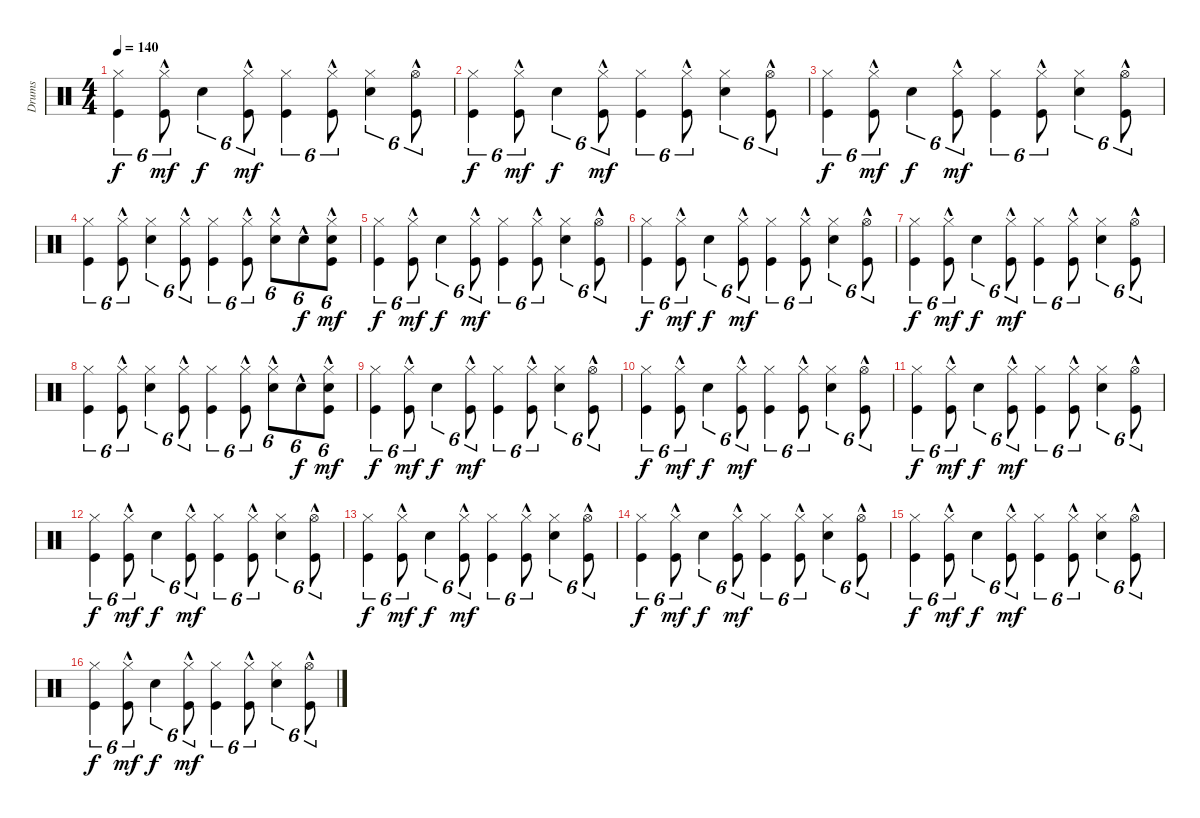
\track ("Drums" "Drums") {instrument percussion}
\staff {score}
\articulation defaults
\ts (4 4)
\tempo 140
\clef neutral
\ks c
("Kick (hit)" "Hi-Hat (closed)").4{tu (6 4) dy f} ("Kick (hit)"{hac} "Hi-Hat (closed)"{hac}).8{tu (6 4) dy mf} "Electric Snare (hit)".4{tu (6 4) dy f} ("Kick (hit)"{hac} "Hi-Hat (closed)"{hac}).8{tu (6 4) dy mf} ("Kick (hit)" "Hi-Hat (closed)").4{tu (6 4)} ("Kick (hit)"{hac} "Hi-Hat (closed)"{hac}).8{tu (6 4)} ("Electric Snare (hit)" "Hi-Hat (closed)").4{tu (6 4)} ("Kick (hit)"{hac} "Hi-Hat (open)"{hac}).8{tu (6 4)} |
("Kick (hit)" "Hi-Hat (closed)").4{tu (6 4) dy f} ("Kick (hit)"{hac} "Hi-Hat (closed)"{hac}).8{tu (6 4) dy mf} "Electric Snare (hit)".4{tu (6 4) dy f} ("Kick (hit)"{hac} "Hi-Hat (closed)"{hac}).8{tu (6 4) dy mf} ("Kick (hit)" "Hi-Hat (closed)").4{tu (6 4)} ("Kick (hit)"{hac} "Hi-Hat (closed)"{hac}).8{tu (6 4)} ("Electric Snare (hit)" "Hi-Hat (closed)").4{tu (6 4)} ("Kick (hit)"{hac} "Hi-Hat (open)"{hac}).8{tu (6 4)} |
("Kick (hit)" "Hi-Hat (closed)").4{tu (6 4) dy f} ("Kick (hit)"{hac} "Hi-Hat (closed)"{hac}).8{tu (6 4) dy mf} "Electric Snare (hit)".4{tu (6 4) dy f} ("Kick (hit)"{hac} "Hi-Hat (closed)"{hac}).8{tu (6 4) dy mf} ("Kick (hit)" "Hi-Hat (closed)").4{tu (6 4)} ("Kick (hit)"{hac} "Hi-Hat (closed)"{hac}).8{tu (6 4)} ("Electric Snare (hit)" "Hi-Hat (closed)").4{tu (6 4)} ("Kick (hit)"{hac} "Hi-Hat (open)"{hac}).8{tu (6 4)} |
("Kick (hit)" "Hi-Hat (closed)").4{tu (6 4)} ("Kick (hit)"{hac} "Hi-Hat (closed)"{hac}).8{tu (6 4)} ("Electric Snare (hit)" "Hi-Hat (closed)").4{tu (6 4)} ("Kick (hit)"{hac} "Hi-Hat (closed)"{hac}).8{tu (6 4)} ("Kick (hit)" "Hi-Hat (closed)").4{tu (6 4)} ("Kick (hit)"{hac} "Hi-Hat (closed)"{hac}).8{tu (6 4)} ("Electric Snare (hit)"{hac} "Hi-Hat (closed)"{hac}).8{tu (6 4)} "Electric Snare (hit)"{hac}.8{tu (6 4) dy f} ("Kick (hit)"{hac} "Snare (hit) 2"{hac} "Hi-Hat (closed)"{hac}).8{tu (6 4) dy mf} |
("Kick (hit)" "Hi-Hat (closed)").4{tu (6 4) dy f} ("Kick (hit)"{hac} "Hi-Hat (closed)"{hac}).8{tu (6 4) dy mf} "Electric Snare (hit)".4{tu (6 4) dy f} ("Kick (hit)"{hac} "Hi-Hat (closed)"{hac}).8{tu (6 4) dy mf} ("Kick (hit)" "Hi-Hat (closed)").4{tu (6 4)} ("Kick (hit)"{hac} "Hi-Hat (closed)"{hac}).8{tu (6 4)} ("Electric Snare (hit)" "Hi-Hat (closed)").4{tu (6 4)} ("Kick (hit)"{hac} "Hi-Hat (open)"{hac}).8{tu (6 4)} |
("Kick (hit)" "Hi-Hat (closed)").4{tu (6 4) dy f} ("Kick (hit)"{hac} "Hi-Hat (closed)"{hac}).8{tu (6 4) dy mf} "Electric Snare (hit)".4{tu (6 4) dy f} ("Kick (hit)"{hac} "Hi-Hat (closed)"{hac}).8{tu (6 4) dy mf} ("Kick (hit)" "Hi-Hat (closed)").4{tu (6 4)} ("Kick (hit)"{hac} "Hi-Hat (closed)"{hac}).8{tu (6 4)} ("Electric Snare (hit)" "Hi-Hat (closed)").4{tu (6 4)} ("Kick (hit)"{hac} "Hi-Hat (open)"{hac}).8{tu (6 4)} |
("Kick (hit)" "Hi-Hat (closed)").4{tu (6 4) dy f} ("Kick (hit)"{hac} "Hi-Hat (closed)"{hac}).8{tu (6 4) dy mf} "Electric Snare (hit)".4{tu (6 4) dy f} ("Kick (hit)"{hac} "Hi-Hat (closed)"{hac}).8{tu (6 4) dy mf} ("Kick (hit)" "Hi-Hat (closed)").4{tu (6 4)} ("Kick (hit)"{hac} "Hi-Hat (closed)"{hac}).8{tu (6 4)} ("Electric Snare (hit)" "Hi-Hat (closed)").4{tu (6 4)} ("Kick (hit)"{hac} "Hi-Hat (open)"{hac}).8{tu (6 4)} |
("Kick (hit)" "Hi-Hat (closed)").4{tu (6 4)} ("Kick (hit)"{hac} "Hi-Hat (closed)"{hac}).8{tu (6 4)} ("Electric Snare (hit)" "Hi-Hat (closed)").4{tu (6 4)} ("Kick (hit)"{hac} "Hi-Hat (closed)"{hac}).8{tu (6 4)} ("Kick (hit)" "Hi-Hat (closed)").4{tu (6 4)} ("Kick (hit)"{hac} "Hi-Hat (closed)"{hac}).8{tu (6 4)} ("Electric Snare (hit)"{hac} "Hi-Hat (closed)"{hac}).8{tu (6 4)} "Electric Snare (hit)"{hac}.8{tu (6 4) dy f} ("Kick (hit)"{hac} "Snare (hit) 2"{hac} "Hi-Hat (closed)"{hac}).8{tu (6 4) dy mf} |
("Kick (hit)" "Hi-Hat (closed)").4{tu (6 4) dy f} ("Kick (hit)"{hac} "Hi-Hat (closed)"{hac}).8{tu (6 4) dy mf} "Electric Snare (hit)".4{tu (6 4) dy f} ("Kick (hit)"{hac} "Hi-Hat (closed)"{hac}).8{tu (6 4) dy mf} ("Kick (hit)" "Hi-Hat (closed)").4{tu (6 4)} ("Kick (hit)"{hac} "Hi-Hat (closed)"{hac}).8{tu (6 4)} ("Electric Snare (hit)" "Hi-Hat (closed)").4{tu (6 4)} ("Kick (hit)"{hac} "Hi-Hat (open)"{hac}).8{tu (6 4)} |
("Kick (hit)" "Hi-Hat (closed)").4{tu (6 4) dy f} ("Kick (hit)"{hac} "Hi-Hat (closed)"{hac}).8{tu (6 4) dy mf} "Electric Snare (hit)".4{tu (6 4) dy f} ("Kick (hit)"{hac} "Hi-Hat (closed)"{hac}).8{tu (6 4) dy mf} ("Kick (hit)" "Hi-Hat (closed)").4{tu (6 4)} ("Kick (hit)"{hac} "Hi-Hat (closed)"{hac}).8{tu (6 4)} ("Electric Snare (hit)" "Hi-Hat (closed)").4{tu (6 4)} ("Kick (hit)"{hac} "Hi-Hat (open)"{hac}).8{tu (6 4)} |
("Kick (hit)" "Hi-Hat (closed)").4{tu (6 4) dy f} ("Kick (hit)"{hac} "Hi-Hat (closed)"{hac}).8{tu (6 4) dy mf} "Electric Snare (hit)".4{tu (6 4) dy f} ("Kick (hit)"{hac} "Hi-Hat (closed)"{hac}).8{tu (6 4) dy mf} ("Kick (hit)" "Hi-Hat (closed)").4{tu (6 4)} ("Kick (hit)"{hac} "Hi-Hat (closed)"{hac}).8{tu (6 4)} ("Electric Snare (hit)" "Hi-Hat (closed)").4{tu (6 4)} ("Kick (hit)"{hac} "Hi-Hat (open)"{hac}).8{tu (6 4)} |
("Kick (hit)" "Hi-Hat (closed)").4{tu (6 4) dy f} ("Kick (hit)"{hac} "Hi-Hat (closed)"{hac}).8{tu (6 4) dy mf} "Electric Snare (hit)".4{tu (6 4) dy f} ("Kick (hit)"{hac} "Hi-Hat (closed)"{hac}).8{tu (6 4) dy mf} ("Kick (hit)" "Hi-Hat (closed)").4{tu (6 4)} ("Kick (hit)"{hac} "Hi-Hat (closed)"{hac}).8{tu (6 4)} ("Electric Snare (hit)" "Hi-Hat (closed)").4{tu (6 4)} ("Kick (hit)"{hac} "Hi-Hat (open)"{hac}).8{tu (6 4)} |
("Kick (hit)" "Hi-Hat (closed)").4{tu (6 4) dy f} ("Kick (hit)"{hac} "Hi-Hat (closed)"{hac}).8{tu (6 4) dy mf} "Electric Snare (hit)".4{tu (6 4) dy f} ("Kick (hit)"{hac} "Hi-Hat (closed)"{hac}).8{tu (6 4) dy mf} ("Kick (hit)" "Hi-Hat (closed)").4{tu (6 4)} ("Kick (hit)"{hac} "Hi-Hat (closed)"{hac}).8{tu (6 4)} ("Electric Snare (hit)" "Hi-Hat (closed)").4{tu (6 4)} ("Kick (hit)"{hac} "Hi-Hat (open)"{hac}).8{tu (6 4)} |
("Kick (hit)" "Hi-Hat (closed)").4{tu (6 4) dy f} ("Kick (hit)"{hac} "Hi-Hat (closed)"{hac}).8{tu (6 4) dy mf} "Electric Snare (hit)".4{tu (6 4) dy f} ("Kick (hit)"{hac} "Hi-Hat (closed)"{hac}).8{tu (6 4) dy mf} ("Kick (hit)" "Hi-Hat (closed)").4{tu (6 4)} ("Kick (hit)"{hac} "Hi-Hat (closed)"{hac}).8{tu (6 4)} ("Electric Snare (hit)" "Hi-Hat (closed)").4{tu (6 4)} ("Kick (hit)"{hac} "Hi-Hat (open)"{hac}).8{tu (6 4)} |
("Kick (hit)" "Hi-Hat (closed)").4{tu (6 4) dy f} ("Kick (hit)"{hac} "Hi-Hat (closed)"{hac}).8{tu (6 4) dy mf} "Electric Snare (hit)".4{tu (6 4) dy f} ("Kick (hit)"{hac} "Hi-Hat (closed)"{hac}).8{tu (6 4) dy mf} ("Kick (hit)" "Hi-Hat (closed)").4{tu (6 4)} ("Kick (hit)"{hac} "Hi-Hat (closed)"{hac}).8{tu (6 4)} ("Electric Snare (hit)" "Hi-Hat (closed)").4{tu (6 4)} ("Kick (hit)"{hac} "Hi-Hat (open)"{hac}).8{tu (6 4)} |
("Kick (hit)" "Hi-Hat (closed)").4{tu (6 4) dy f} ("Kick (hit)"{hac} "Hi-Hat (closed)"{hac}).8{tu (6 4) dy mf} "Electric Snare (hit)".4{tu (6 4) dy f} ("Kick (hit)"{hac} "Hi-Hat (closed)"{hac}).8{tu (6 4) dy mf} ("Kick (hit)" "Hi-Hat (closed)").4{tu (6 4)} ("Kick (hit)"{hac} "Hi-Hat (closed)"{hac}).8{tu (6 4)} ("Electric Snare (hit)" "Hi-Hat (closed)").4{tu (6 4)} ("Kick (hit)"{hac} "Hi-Hat (open)"{hac}).8{tu (6 4)}
